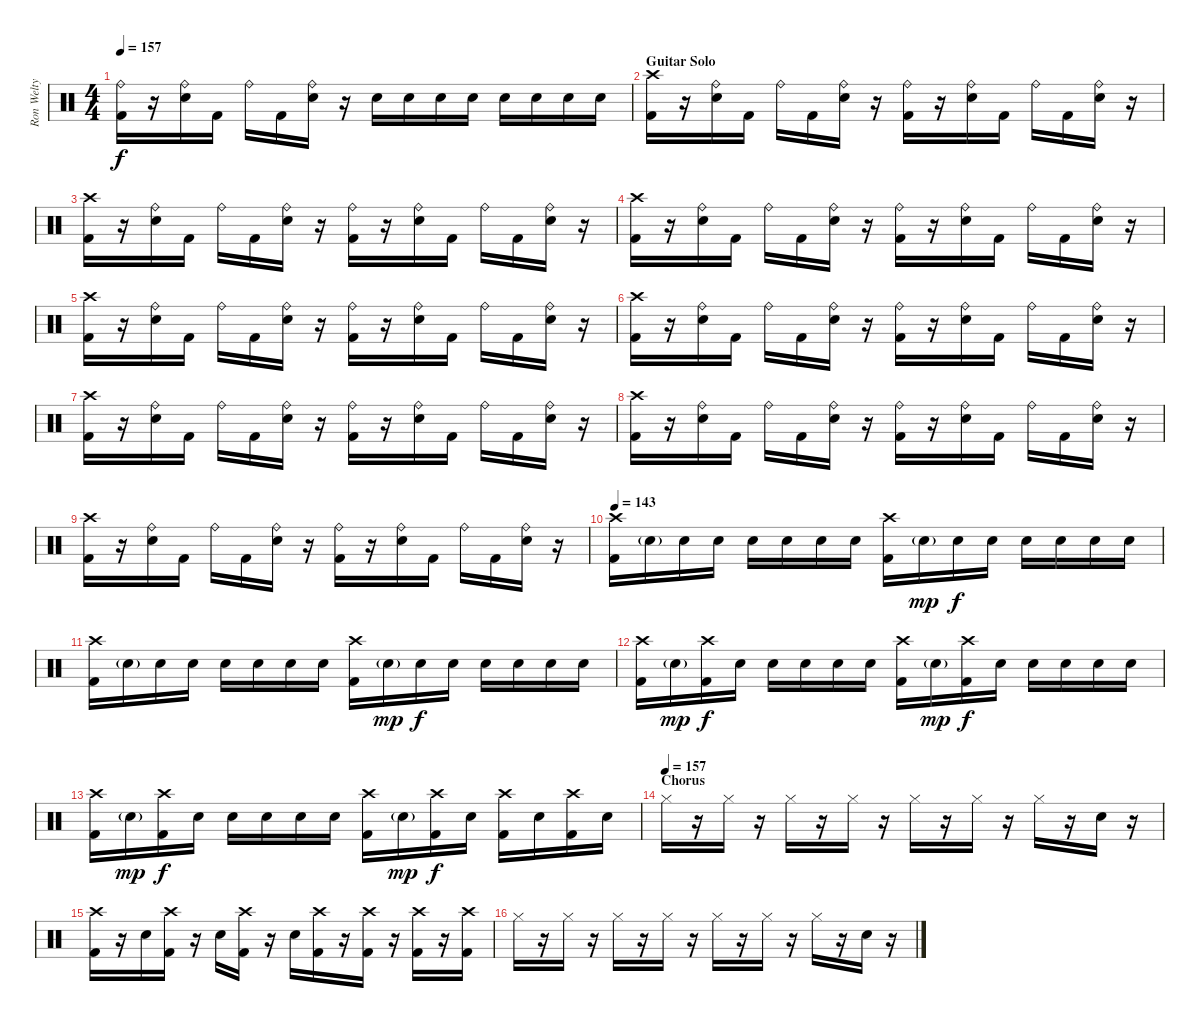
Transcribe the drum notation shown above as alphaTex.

\track ("Ron Welty - Drums" "Ron Welty ") {instrument percussion}
\staff {score}
\articulation defaults
\ts (4 4)
\tempo 157
\clef neutral
\ks c
("Ride (bell)" "Kick (hit) 2").16{dy f} r.16 ("Ride (bell)" "Snare (hit) 2").16 "Kick (hit) 2".16 "Ride (bell)".16 "Kick (hit) 2".16 ("Ride (bell)" "Snare (hit) 2").16 r.16 "Snare (hit) 2".16 "Snare (hit) 2".16 "Snare (hit) 2".16 "Snare (hit) 2".16 "Snare (hit) 2".16 "Snare (hit) 2".16 "Snare (hit) 2".16 "Snare (hit) 2".16 |
\section ("" "Guitar Solo")
("Crash high (hit)" "Kick (hit) 2").16 r.16 ("Ride (bell)" "Snare (hit) 2").16 "Kick (hit) 2".16 "Ride (bell)".16 "Kick (hit) 2".16 ("Ride (bell)" "Snare (hit) 2").16 r.16 ("Ride (bell)" "Kick (hit) 2").16 r.16 ("Ride (bell)" "Snare (hit) 2").16 "Kick (hit) 2".16 "Ride (bell)".16 "Kick (hit) 2".16 ("Ride (bell)" "Snare (hit) 2").16 r.16 |
("Crash high (hit)" "Kick (hit) 2").16 r.16 ("Ride (bell)" "Snare (hit) 2").16 "Kick (hit) 2".16 "Ride (bell)".16 "Kick (hit) 2".16 ("Ride (bell)" "Snare (hit) 2").16 r.16 ("Ride (bell)" "Kick (hit) 2").16 r.16 ("Ride (bell)" "Snare (hit) 2").16 "Kick (hit) 2".16 "Ride (bell)".16 "Kick (hit) 2".16 ("Ride (bell)" "Snare (hit) 2").16 r.16 |
("Crash high (hit)" "Kick (hit) 2").16 r.16 ("Ride (bell)" "Snare (hit) 2").16 "Kick (hit) 2".16 "Ride (bell)".16 "Kick (hit) 2".16 ("Ride (bell)" "Snare (hit) 2").16 r.16 ("Ride (bell)" "Kick (hit) 2").16 r.16 ("Ride (bell)" "Snare (hit) 2").16 "Kick (hit) 2".16 "Ride (bell)".16 "Kick (hit) 2".16 ("Ride (bell)" "Snare (hit) 2").16 r.16 |
("Crash high (hit)" "Kick (hit) 2").16 r.16 ("Ride (bell)" "Snare (hit) 2").16 "Kick (hit) 2".16 "Ride (bell)".16 "Kick (hit) 2".16 ("Ride (bell)" "Snare (hit) 2").16 r.16 ("Ride (bell)" "Kick (hit) 2").16 r.16 ("Ride (bell)" "Snare (hit) 2").16 "Kick (hit) 2".16 "Ride (bell)".16 "Kick (hit) 2".16 ("Ride (bell)" "Snare (hit) 2").16 r.16 |
("Crash high (hit)" "Kick (hit) 2").16 r.16 ("Ride (bell)" "Snare (hit) 2").16 "Kick (hit) 2".16 "Ride (bell)".16 "Kick (hit) 2".16 ("Ride (bell)" "Snare (hit) 2").16 r.16 ("Ride (bell)" "Kick (hit) 2").16 r.16 ("Ride (bell)" "Snare (hit) 2").16 "Kick (hit) 2".16 "Ride (bell)".16 "Kick (hit) 2".16 ("Ride (bell)" "Snare (hit) 2").16 r.16 |
("Crash high (hit)" "Kick (hit) 2").16 r.16 ("Ride (bell)" "Snare (hit) 2").16 "Kick (hit) 2".16 "Ride (bell)".16 "Kick (hit) 2".16 ("Ride (bell)" "Snare (hit) 2").16 r.16 ("Ride (bell)" "Kick (hit) 2").16 r.16 ("Ride (bell)" "Snare (hit) 2").16 "Kick (hit) 2".16 "Ride (bell)".16 "Kick (hit) 2".16 ("Ride (bell)" "Snare (hit) 2").16 r.16 |
("Crash high (hit)" "Kick (hit) 2").16 r.16 ("Ride (bell)" "Snare (hit) 2").16 "Kick (hit) 2".16 "Ride (bell)".16 "Kick (hit) 2".16 ("Ride (bell)" "Snare (hit) 2").16 r.16 ("Ride (bell)" "Kick (hit) 2").16 r.16 ("Ride (bell)" "Snare (hit) 2").16 "Kick (hit) 2".16 "Ride (bell)".16 "Kick (hit) 2".16 ("Ride (bell)" "Snare (hit) 2").16 r.16 |
("Crash high (hit)" "Kick (hit) 2").16 r.16 ("Ride (bell)" "Snare (hit) 2").16 "Kick (hit) 2".16 "Ride (bell)".16 "Kick (hit) 2".16 ("Ride (bell)" "Snare (hit) 2").16 r.16 ("Ride (bell)" "Kick (hit) 2").16 r.16 ("Ride (bell)" "Snare (hit) 2").16 "Kick (hit) 2".16 "Ride (bell)".16 "Kick (hit) 2".16 ("Ride (bell)" "Snare (hit) 2").16 r.16 |
\tempo 143
("Crash high (hit)" "Kick (hit) 2").16 "Snare (hit) 2"{g}.16 "Snare (hit) 2".16 "Snare (hit) 2".16 "Snare (hit) 2".16 "Snare (hit) 2".16 "Snare (hit) 2".16 "Snare (hit) 2".16 ("Crash high (hit)" "Kick (hit) 2").16 "Snare (hit) 2"{g}.16{dy mp} "Snare (hit) 2".16{dy f} "Snare (hit) 2".16 "Snare (hit) 2".16 "Snare (hit) 2".16 "Snare (hit) 2".16 "Snare (hit) 2".16 |
("Crash high (hit)" "Kick (hit) 2").16 "Snare (hit) 2"{g}.16 "Snare (hit) 2".16 "Snare (hit) 2".16 "Snare (hit) 2".16 "Snare (hit) 2".16 "Snare (hit) 2".16 "Snare (hit) 2".16 ("Crash high (hit)" "Kick (hit) 2").16 "Snare (hit) 2"{g}.16{dy mp} "Snare (hit) 2".16{dy f} "Snare (hit) 2".16 "Snare (hit) 2".16 "Snare (hit) 2".16 "Snare (hit) 2".16 "Snare (hit) 2".16 |
("Crash high (hit)" "Kick (hit) 2").16 "Snare (hit) 2"{g}.16{dy mp} ("Crash high (hit)" "Kick (hit) 2").16{dy f} "Snare (hit) 2".16 "Snare (hit) 2".16 "Snare (hit) 2".16 "Snare (hit) 2".16 "Snare (hit) 2".16 ("Crash high (hit)" "Kick (hit) 2").16 "Snare (hit) 2"{g}.16{dy mp} ("Crash high (hit)" "Kick (hit) 2").16{dy f} "Snare (hit) 2".16 "Snare (hit) 2".16 "Snare (hit) 2".16 "Snare (hit) 2".16 "Snare (hit) 2".16 |
("Crash high (hit)" "Kick (hit) 2").16 "Snare (hit) 2"{g}.16{dy mp} ("Crash high (hit)" "Kick (hit) 2").16{dy f} "Snare (hit) 2".16 "Snare (hit) 2".16 "Snare (hit) 2".16 "Snare (hit) 2".16 "Snare (hit) 2".16 ("Crash high (hit)" "Kick (hit) 2").16 "Snare (hit) 2"{g}.16{dy mp} ("Crash high (hit)" "Kick (hit) 2").16{dy f} "Snare (hit) 2".16 ("Crash high (hit)" "Kick (hit) 2").16 "Snare (hit) 2".16 ("Crash high (hit)" "Kick (hit) 2").16 "Snare (hit) 2".16 |
\section ("" "Chorus")
\tempo (157)
"Hi-Hat (closed)".16 r.16 "Hi-Hat (closed)".16 r.16 "Hi-Hat (closed)".16 r.16 "Hi-Hat (closed)".16 r.16 "Hi-Hat (closed)".16 r.16 "Hi-Hat (closed)".16 r.16 "Hi-Hat (closed)".16 r.16 "Snare (hit) 2".16 r.16 |
("Crash high (hit)" "Kick (hit) 2").16 r.16 "Snare (hit) 2".16 ("Crash high (hit)" "Kick (hit) 2").16 r.16 "Snare (hit) 2".16 ("Crash high (hit)" "Kick (hit) 2").16 r.16 "Snare (hit) 2".16 ("Crash high (hit)" "Kick (hit) 2").16 r.16 ("Crash high (hit)" "Kick (hit) 2").16 r.16 ("Crash high (hit)" "Kick (hit) 2").16 r.16 ("Crash high (hit)" "Kick (hit) 2").16 |
"Hi-Hat (closed)".16 r.16 "Hi-Hat (closed)".16 r.16 "Hi-Hat (closed)".16 r.16 "Hi-Hat (closed)".16 r.16 "Hi-Hat (closed)".16 r.16 "Hi-Hat (closed)".16 r.16 "Hi-Hat (closed)".16 r.16 "Snare (hit) 2".16 r.16
